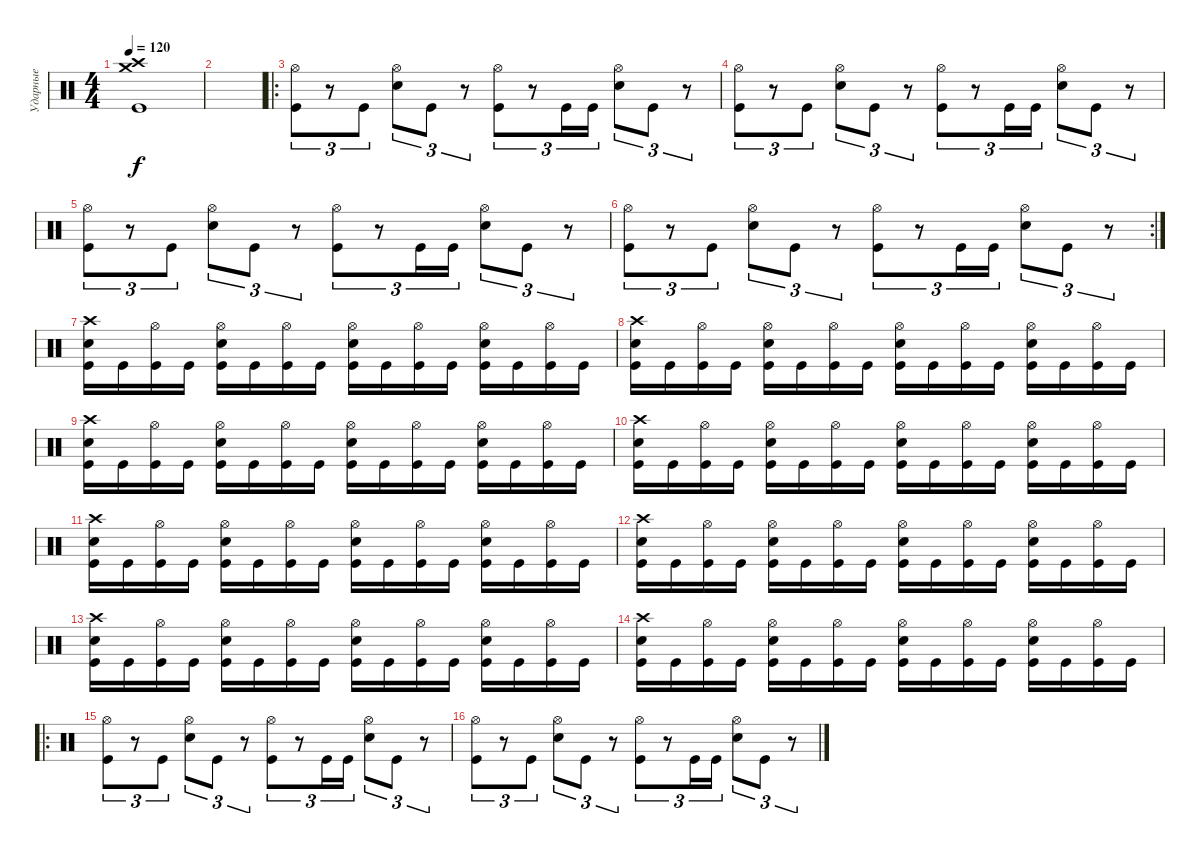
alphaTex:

\track ("Ударные" "Ударные") {instrument percussion}
\staff {score}
\articulation defaults
\ts (4 4)
\tempo 120
\clef neutral
\ks c
("Crash medium (hit)" "Crash high (hit)" "Kick (hit)").1{dy f} |
|
\ro
("Hi-Hat (open)" "Kick (hit)").8{tu (3 2)} r.8{tu (3 2)} "Kick (hit)".8{tu (3 2)} ("Hi-Hat (open)" "Snare (hit) 2").8{tu (3 2)} "Kick (hit)".8{tu (3 2)} r.8{tu (3 2)} ("Hi-Hat (open)" "Kick (hit)").8{tu (3 2)} r.8{tu (3 2)} "Kick (hit)".16{tu (3 2)} "Kick (hit)".16{tu (3 2)} ("Hi-Hat (open)" "Snare (hit) 2").8{tu (3 2)} "Kick (hit)".8{tu (3 2)} r.8{tu (3 2)} |
("Hi-Hat (open)" "Kick (hit)").8{tu (3 2)} r.8{tu (3 2)} "Kick (hit)".8{tu (3 2)} ("Hi-Hat (open)" "Snare (hit) 2").8{tu (3 2)} "Kick (hit)".8{tu (3 2)} r.8{tu (3 2)} ("Hi-Hat (open)" "Kick (hit)").8{tu (3 2)} r.8{tu (3 2)} "Kick (hit)".16{tu (3 2)} "Kick (hit)".16{tu (3 2)} ("Hi-Hat (open)" "Snare (hit) 2").8{tu (3 2)} "Kick (hit)".8{tu (3 2)} r.8{tu (3 2)} |
("Hi-Hat (open)" "Kick (hit)").8{tu (3 2)} r.8{tu (3 2)} "Kick (hit)".8{tu (3 2)} ("Hi-Hat (open)" "Snare (hit) 2").8{tu (3 2)} "Kick (hit)".8{tu (3 2)} r.8{tu (3 2)} ("Hi-Hat (open)" "Kick (hit)").8{tu (3 2)} r.8{tu (3 2)} "Kick (hit)".16{tu (3 2)} "Kick (hit)".16{tu (3 2)} ("Hi-Hat (open)" "Snare (hit) 2").8{tu (3 2)} "Kick (hit)".8{tu (3 2)} r.8{tu (3 2)} |
\rc 2
("Hi-Hat (open)" "Kick (hit)").8{tu (3 2)} r.8{tu (3 2)} "Kick (hit)".8{tu (3 2)} ("Hi-Hat (open)" "Snare (hit) 2").8{tu (3 2)} "Kick (hit)".8{tu (3 2)} r.8{tu (3 2)} ("Hi-Hat (open)" "Kick (hit)").8{tu (3 2)} r.8{tu (3 2)} "Kick (hit)".16{tu (3 2)} "Kick (hit)".16{tu (3 2)} ("Hi-Hat (open)" "Snare (hit) 2").8{tu (3 2)} "Kick (hit)".8{tu (3 2)} r.8{tu (3 2)} |
("Crash high (hit)" "Snare (hit) 2" "Kick (hit)").16 "Kick (hit)".16 ("Hi-Hat (open)" "Kick (hit)").16 "Kick (hit)".16 ("Hi-Hat (open)" "Snare (hit) 2" "Kick (hit)").16 "Kick (hit)".16 ("Hi-Hat (open)" "Kick (hit)").16 "Kick (hit)".16 ("Hi-Hat (open)" "Snare (hit) 2" "Kick (hit)").16 "Kick (hit)".16 ("Hi-Hat (open)" "Kick (hit)").16 "Kick (hit)".16 ("Hi-Hat (open)" "Snare (hit) 2" "Kick (hit)").16 "Kick (hit)".16 ("Hi-Hat (open)" "Kick (hit)").16 "Kick (hit)".16 |
("Crash high (hit)" "Snare (hit) 2" "Kick (hit)").16 "Kick (hit)".16 ("Hi-Hat (open)" "Kick (hit)").16 "Kick (hit)".16 ("Hi-Hat (open)" "Snare (hit) 2" "Kick (hit)").16 "Kick (hit)".16 ("Hi-Hat (open)" "Kick (hit)").16 "Kick (hit)".16 ("Hi-Hat (open)" "Snare (hit) 2" "Kick (hit)").16 "Kick (hit)".16 ("Hi-Hat (open)" "Kick (hit)").16 "Kick (hit)".16 ("Hi-Hat (open)" "Snare (hit) 2" "Kick (hit)").16 "Kick (hit)".16 ("Hi-Hat (open)" "Kick (hit)").16 "Kick (hit)".16 |
("Crash high (hit)" "Snare (hit) 2" "Kick (hit)").16 "Kick (hit)".16 ("Hi-Hat (open)" "Kick (hit)").16 "Kick (hit)".16 ("Hi-Hat (open)" "Snare (hit) 2" "Kick (hit)").16 "Kick (hit)".16 ("Hi-Hat (open)" "Kick (hit)").16 "Kick (hit)".16 ("Hi-Hat (open)" "Snare (hit) 2" "Kick (hit)").16 "Kick (hit)".16 ("Hi-Hat (open)" "Kick (hit)").16 "Kick (hit)".16 ("Hi-Hat (open)" "Snare (hit) 2" "Kick (hit)").16 "Kick (hit)".16 ("Hi-Hat (open)" "Kick (hit)").16 "Kick (hit)".16 |
("Crash high (hit)" "Snare (hit) 2" "Kick (hit)").16 "Kick (hit)".16 ("Hi-Hat (open)" "Kick (hit)").16 "Kick (hit)".16 ("Hi-Hat (open)" "Snare (hit) 2" "Kick (hit)").16 "Kick (hit)".16 ("Hi-Hat (open)" "Kick (hit)").16 "Kick (hit)".16 ("Hi-Hat (open)" "Snare (hit) 2" "Kick (hit)").16 "Kick (hit)".16 ("Hi-Hat (open)" "Kick (hit)").16 "Kick (hit)".16 ("Hi-Hat (open)" "Snare (hit) 2" "Kick (hit)").16 "Kick (hit)".16 ("Hi-Hat (open)" "Kick (hit)").16 "Kick (hit)".16 |
("Crash high (hit)" "Snare (hit) 2" "Kick (hit)").16 "Kick (hit)".16 ("Hi-Hat (open)" "Kick (hit)").16 "Kick (hit)".16 ("Hi-Hat (open)" "Snare (hit) 2" "Kick (hit)").16 "Kick (hit)".16 ("Hi-Hat (open)" "Kick (hit)").16 "Kick (hit)".16 ("Hi-Hat (open)" "Snare (hit) 2" "Kick (hit)").16 "Kick (hit)".16 ("Hi-Hat (open)" "Kick (hit)").16 "Kick (hit)".16 ("Hi-Hat (open)" "Snare (hit) 2" "Kick (hit)").16 "Kick (hit)".16 ("Hi-Hat (open)" "Kick (hit)").16 "Kick (hit)".16 |
("Crash high (hit)" "Snare (hit) 2" "Kick (hit)").16 "Kick (hit)".16 ("Hi-Hat (open)" "Kick (hit)").16 "Kick (hit)".16 ("Hi-Hat (open)" "Snare (hit) 2" "Kick (hit)").16 "Kick (hit)".16 ("Hi-Hat (open)" "Kick (hit)").16 "Kick (hit)".16 ("Hi-Hat (open)" "Snare (hit) 2" "Kick (hit)").16 "Kick (hit)".16 ("Hi-Hat (open)" "Kick (hit)").16 "Kick (hit)".16 ("Hi-Hat (open)" "Snare (hit) 2" "Kick (hit)").16 "Kick (hit)".16 ("Hi-Hat (open)" "Kick (hit)").16 "Kick (hit)".16 |
("Crash high (hit)" "Snare (hit) 2" "Kick (hit)").16 "Kick (hit)".16 ("Hi-Hat (open)" "Kick (hit)").16 "Kick (hit)".16 ("Hi-Hat (open)" "Snare (hit) 2" "Kick (hit)").16 "Kick (hit)".16 ("Hi-Hat (open)" "Kick (hit)").16 "Kick (hit)".16 ("Hi-Hat (open)" "Snare (hit) 2" "Kick (hit)").16 "Kick (hit)".16 ("Hi-Hat (open)" "Kick (hit)").16 "Kick (hit)".16 ("Hi-Hat (open)" "Snare (hit) 2" "Kick (hit)").16 "Kick (hit)".16 ("Hi-Hat (open)" "Kick (hit)").16 "Kick (hit)".16 |
("Crash high (hit)" "Snare (hit) 2" "Kick (hit)").16 "Kick (hit)".16 ("Hi-Hat (open)" "Kick (hit)").16 "Kick (hit)".16 ("Hi-Hat (open)" "Snare (hit) 2" "Kick (hit)").16 "Kick (hit)".16 ("Hi-Hat (open)" "Kick (hit)").16 "Kick (hit)".16 ("Hi-Hat (open)" "Snare (hit) 2" "Kick (hit)").16 "Kick (hit)".16 ("Hi-Hat (open)" "Kick (hit)").16 "Kick (hit)".16 ("Hi-Hat (open)" "Snare (hit) 2" "Kick (hit)").16 "Kick (hit)".16 ("Hi-Hat (open)" "Kick (hit)").16 "Kick (hit)".16 |
\ro
("Hi-Hat (open)" "Kick (hit)").8{tu (3 2)} r.8{tu (3 2)} "Kick (hit)".8{tu (3 2)} ("Hi-Hat (open)" "Snare (hit) 2").8{tu (3 2)} "Kick (hit)".8{tu (3 2)} r.8{tu (3 2)} ("Hi-Hat (open)" "Kick (hit)").8{tu (3 2)} r.8{tu (3 2)} "Kick (hit)".16{tu (3 2)} "Kick (hit)".16{tu (3 2)} ("Hi-Hat (open)" "Snare (hit) 2").8{tu (3 2)} "Kick (hit)".8{tu (3 2)} r.8{tu (3 2)} |
("Hi-Hat (open)" "Kick (hit)").8{tu (3 2)} r.8{tu (3 2)} "Kick (hit)".8{tu (3 2)} ("Hi-Hat (open)" "Snare (hit) 2").8{tu (3 2)} "Kick (hit)".8{tu (3 2)} r.8{tu (3 2)} ("Hi-Hat (open)" "Kick (hit)").8{tu (3 2)} r.8{tu (3 2)} "Kick (hit)".16{tu (3 2)} "Kick (hit)".16{tu (3 2)} ("Hi-Hat (open)" "Snare (hit) 2").8{tu (3 2)} "Kick (hit)".8{tu (3 2)} r.8{tu (3 2)}
